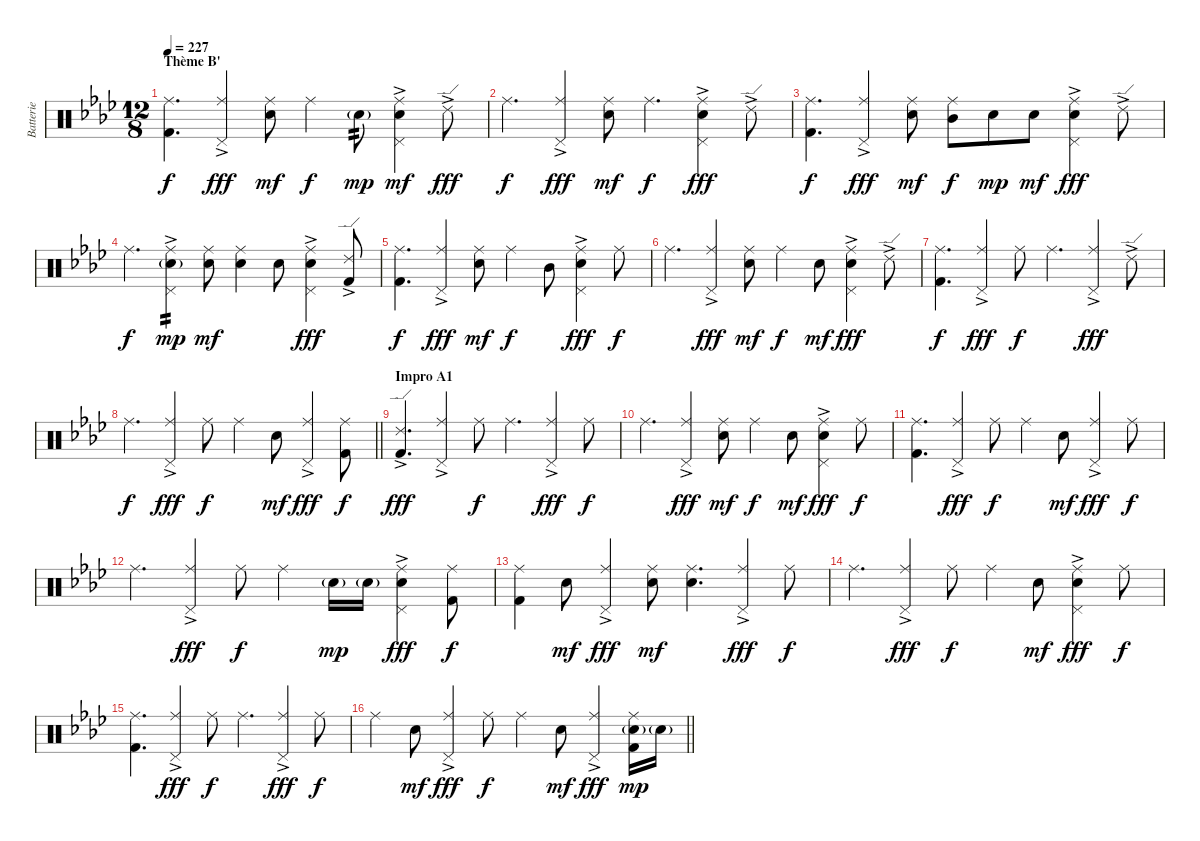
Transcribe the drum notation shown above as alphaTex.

\track ("Batterie" "Batterie") {instrument percussion}
\staff {score}
\articulation defaults
\ts (12 8)
\section ("" "Thème B'")
\tempo 227
\clef neutral
\ks fminor
("Ride (middle)" "Kick (hit) 2").4{d dy f volume 12 balance 8} ("Ride (middle)" "Pedal Hi-Hat (hit)"{ac}).4{dy fff} ("Ride (middle)" "Snare (hit) 2").8{dy mf} "Ride (middle)".4{dy f} "Snare (hit) 2"{g}.8{tp 2 dy mp} ("Ride (middle)" "Pedal Hi-Hat (hit)"{ac} "Snare (hit) 2").4{dy mf} "Ride (edge) 2"{ac}.8{dy fff} |
"Ride (middle)".4{d dy f} ("Ride (middle)" "Pedal Hi-Hat (hit)"{ac}).4{dy fff} ("Ride (middle)" "Snare (hit) 2").8{dy mf} "Ride (middle)".4{d dy f} ("Ride (middle)" "Pedal Hi-Hat (hit)"{ac} "Snare (hit) 2").4{dy fff} "Ride (edge) 2"{ac}.8 |
("Ride (middle)" "Kick (hit) 2").4{d dy f} ("Ride (middle)" "Pedal Hi-Hat (hit)"{ac}).4{dy fff} ("Ride (middle)" "Snare (hit) 2").8{dy mf} ("Ride (middle)" "Mid Tom (hit)").8{dy f} "Snare (hit) 2".8{dy mp} "Snare (hit) 2".8{dy mf} ("Ride (middle)" "Pedal Hi-Hat (hit)"{ac} "Snare (hit) 2").4{dy fff} "Ride (edge) 2"{ac}.8 |
"Ride (middle)".4{d dy f} ("Ride (middle)" "Pedal Hi-Hat (hit)"{ac} "Snare (hit) 2"{g}).4{tp 2 dy mp} ("Ride (middle)" "Snare (hit) 2").8{dy mf} ("Ride (middle)" "Snare (hit) 2").4 "Snare (hit) 2".8 ("Ride (middle)" "Pedal Hi-Hat (hit)"{ac} "Snare (hit) 2").4{dy fff} ("Ride (edge) 2"{ac} "Kick (hit) 2").8 |
("Ride (middle)" "Kick (hit) 2").4{d dy f} ("Ride (middle)" "Pedal Hi-Hat (hit)"{ac}).4{dy fff} ("Ride (middle)" "Snare (hit) 2").8{dy mf} "Ride (middle)".4{dy f} "Mid Tom (hit)".8 ("Ride (middle)" "Pedal Hi-Hat (hit)"{ac} "Snare (hit) 2").4{dy fff} "Ride (middle)".8{dy f} |
"Ride (middle)".4{d} ("Ride (middle)" "Pedal Hi-Hat (hit)"{ac}).4{dy fff} ("Ride (middle)" "Snare (hit) 2").8{dy mf} "Ride (middle)".4{dy f} "Snare (hit) 2".8{dy mf} ("Ride (middle)" "Pedal Hi-Hat (hit)"{ac} "Snare (hit) 2").4{dy fff} "Ride (edge) 2"{ac}.8 |
("Ride (middle)" "Kick (hit) 2").4{d dy f} ("Ride (middle)" "Pedal Hi-Hat (hit)"{ac}).4{dy fff} "Ride (middle)".8{dy f} "Ride (middle)".4{d} ("Ride (middle)" "Pedal Hi-Hat (hit)"{ac}).4{dy fff} "Ride (edge) 2"{ac}.8 |
\barLineRight lightlight "Ride (middle)".4{d dy f}
("Ride (middle)" "Pedal Hi-Hat (hit)"{ac}).4{dy fff} "Ride (middle)".8{dy f} "Ride (middle)".4 "Snare (hit) 2".8{dy mf} ("Ride (middle)" "Pedal Hi-Hat (hit)"{ac}).4{dy fff} ("Ride (middle)" "Kick (hit) 2").8{dy f} |
\section ("" "Impro A1")
("Ride (edge) 2"{ac} "Kick (hit) 2").4{d dy fff volume 11 balance 8} ("Ride (middle)" "Pedal Hi-Hat (hit)"{ac}).4 "Ride (middle)".8{dy f} "Ride (middle)".4{d} ("Ride (middle)" "Pedal Hi-Hat (hit)"{ac}).4{dy fff} "Ride (middle)".8{dy f} |
"Ride (middle)".4{d} ("Ride (middle)" "Pedal Hi-Hat (hit)"{ac}).4{dy fff} ("Ride (middle)" "Snare (hit) 2").8{dy mf} "Ride (middle)".4{dy f} "Snare (hit) 2".8{dy mf} ("Ride (middle)" "Pedal Hi-Hat (hit)"{ac} "Snare (hit) 2").4{dy fff} "Ride (middle)".8{dy f} |
("Ride (middle)" "Kick (hit) 2").4{d} ("Ride (middle)" "Pedal Hi-Hat (hit)"{ac}).4{dy fff} "Ride (middle)".8{dy f} "Ride (middle)".4 "Snare (hit) 2".8{dy mf} ("Ride (middle)" "Pedal Hi-Hat (hit)"{ac}).4{dy fff} "Ride (middle)".8{dy f} |
"Ride (middle)".4{d} ("Ride (middle)" "Pedal Hi-Hat (hit)"{ac}).4{dy fff} "Ride (middle)".8{dy f} "Ride (middle)".4 "Snare (hit) 2"{g}.16{dy mp} "Snare (hit) 2"{g}.16 ("Ride (middle)" "Pedal Hi-Hat (hit)"{ac} "Snare (hit) 2"{ac}).4{dy fff} ("Ride (middle)" "Kick (hit) 2").8{dy f} |
("Ride (middle)" "Kick (hit) 2").4 "Snare (hit) 2".8{dy mf} ("Ride (middle)" "Pedal Hi-Hat (hit)"{ac}).4{dy fff} ("Ride (middle)" "Snare (hit) 2").8{dy mf} ("Ride (middle)" "Snare (hit) 2").4{d} ("Ride (middle)" "Pedal Hi-Hat (hit)"{ac}).4{dy fff} "Ride (middle)".8{dy f} |
"Ride (middle)".4{d} ("Ride (middle)" "Pedal Hi-Hat (hit)"{ac}).4{dy fff} "Ride (middle)".8{dy f} "Ride (middle)".4 "Snare (hit) 2".8{dy mf} ("Ride (middle)" "Pedal Hi-Hat (hit)"{ac} "Snare (hit) 2").4{dy fff} "Ride (middle)".8{dy f} |
("Ride (middle)" "Kick (hit) 2").4{d} ("Ride (middle)" "Pedal Hi-Hat (hit)"{ac}).4{dy fff} "Ride (middle)".8{dy f} "Ride (middle)".4{d} ("Ride (middle)" "Pedal Hi-Hat (hit)"{ac}).4{dy fff} "Ride (middle)".8{dy f} |
\barLineRight lightlight "Ride (middle)".4 "Snare (hit) 2".8{dy mf}
("Ride (middle)" "Pedal Hi-Hat (hit)"{ac}).4{dy fff} "Ride (middle)".8{dy f} "Ride (middle)".4 "Snare (hit) 2".8{dy mf} ("Ride (middle)" "Pedal Hi-Hat (hit)"{ac}).4{dy fff} ("Ride (middle)" "Snare (hit) 2"{g} "Kick (hit) 2").16{dy mp} "Snare (hit) 2"{g}.16
